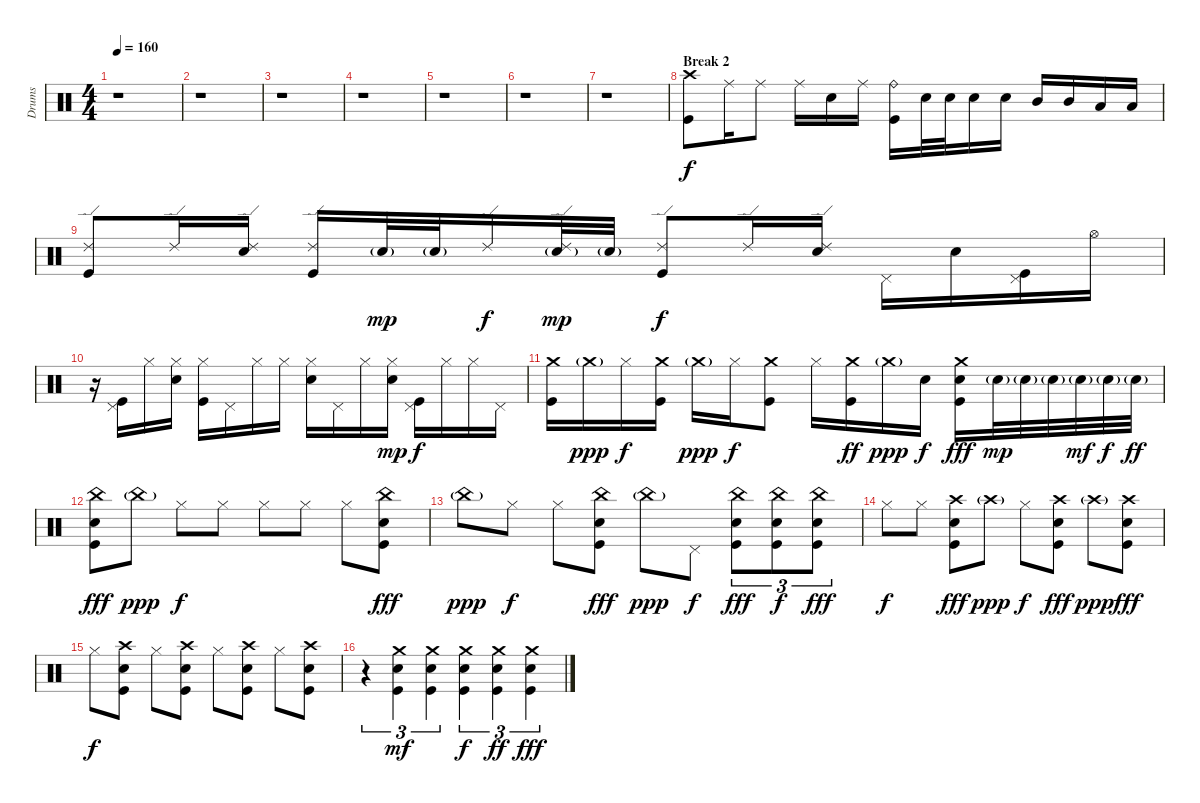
\track ("Drums" "Drums") {instrument percussion}
\staff {score}
\articulation defaults
\ts (4 4)
\tempo 160
\clef neutral
\ks c
r.1{dy f} |
r.1 |
r.1 |
r.1 |
r.1 |
r.1 |
r.1 |
\section ("" "Break 2")
("Crash high (hit)" "Kick (hit)").8{volume 14} "Ride (middle)".16 "Ride (middle)".8 "Ride (middle)".16 "Electric Snare (hit)".16 "Ride (middle)".16 ("Ride (bell)" "Kick (hit)").16 "Electric Snare (hit)".32 "Electric Snare (hit)".32 "Electric Snare (hit)".16 "Electric Snare (hit)".16 "Mid Tom (hit)".16 "Mid Tom (hit)".16 "Low Tom (hit)".16 "Low Tom (hit)".16 |
("Ride (edge) 2" "Kick (hit)").8 "Ride (edge) 2".16 ("Ride (edge) 2" "Electric Snare (hit)").16 ("Ride (edge) 2" "Kick (hit)").16 "Electric Snare (hit)"{g}.32{dy mp} "Electric Snare (hit)"{g}.32 "Ride (edge) 2".16{dy f} ("Ride (edge) 2" "Electric Snare (hit)"{g}).32{dy mp} "Electric Snare (hit)"{g}.32 ("Ride (edge) 2" "Kick (hit)").8{dy f} "Ride (edge) 2".16 ("Ride (edge) 2" "Electric Snare (hit)").16 "Pedal Hi-Hat (hit)".16 "Electric Snare (hit)".16 ("Pedal Hi-Hat (hit)" "Kick (hit)").16 "Hi-Hat (open)".16 |
r.16 ("Pedal Hi-Hat (hit)" "Kick (hit)").16 "Hi-Hat (closed)".16 ("Hi-Hat (closed)" "Electric Snare (hit)").16 ("Hi-Hat (closed)" "Kick (hit)").16 "Pedal Hi-Hat (hit)".16 "Hi-Hat (closed)".16 "Hi-Hat (closed)".16 ("Hi-Hat (closed)" "Electric Snare (hit)").16 "Pedal Hi-Hat (hit)".16 "Hi-Hat (closed)".16 ("Hi-Hat (closed)" "Electric Snare (hit)").16{dy mp} ("Pedal Hi-Hat (hit)" "Kick (hit)").16{dy f} "Hi-Hat (closed)".16 "Hi-Hat (closed)".16 "Pedal Hi-Hat (hit)".16 |
("Crash medium (hit)" "Kick (hit)").16 "Crash medium (hit)"{g}.16{dy ppp} "Hi-Hat (closed)".16{dy f} ("Crash medium (hit)" "Kick (hit)").16 "Crash medium (hit)"{g}.16{dy ppp} "Hi-Hat (closed)".16{dy f} ("Crash medium (hit)" "Kick (hit)").8 "Hi-Hat (closed)".16 ("Crash medium (hit)" "Kick (hit)").16{dy ff} "Crash medium (hit)"{g}.16{dy ppp} "Electric Snare (hit)".16{dy f} ("Crash medium (hit)" "Electric Snare (hit)" "Kick (hit)").16{dy fff} "Electric Snare (hit)"{g}.32{dy mp} "Electric Snare (hit)"{g}.32 "Electric Snare (hit)"{g}.32 "Electric Snare (hit)"{g}.32{dy mf} "Electric Snare (hit)"{g}.32{dy f} "Electric Snare (hit)"{g}.32{dy ff} |
("China (hit)" "Electric Snare (hit)" "Kick (hit)").8{dy fff} "China (hit)"{g}.8{dy ppp} "Hi-Hat (closed)".8{dy f} "Hi-Hat (closed)".8 "Hi-Hat (closed)".8 "Hi-Hat (closed)".8 "Hi-Hat (closed)".8 ("China (hit)" "Electric Snare (hit)" "Kick (hit)").8{dy fff} |
"China (hit)"{g}.8{dy ppp} "Hi-Hat (closed)".8{dy f} "Hi-Hat (closed)".8 ("China (hit)" "Electric Snare (hit)" "Kick (hit)").8{dy fff} "China (hit)"{g}.8{dy ppp} "Pedal Hi-Hat (hit)".8{dy f} ("China (hit)" "Electric Snare (hit)" "Kick (hit)").8{tu (3 2) dy fff} ("China (hit)" "Electric Snare (hit)" "Kick (hit)").8{tu (3 2) dy f} ("China (hit)" "Electric Snare (hit)" "Kick (hit)").8{tu (3 2) dy fff} |
"Hi-Hat (closed)".8{dy f} "Hi-Hat (closed)".8 ("Crash high (hit)" "Electric Snare (hit)" "Kick (hit)").8{dy fff} "Crash high (hit)"{g}.8{dy ppp} "Hi-Hat (closed)".8{dy f} ("Crash high (hit)" "Electric Snare (hit)" "Kick (hit)").8{dy fff} "Crash high (hit)"{g}.8{dy ppp} ("Crash high (hit)" "Electric Snare (hit)" "Kick (hit)").8{dy fff} |
"Hi-Hat (closed)".8{dy f} ("Crash high (hit)" "Electric Snare (hit)" "Kick (hit)").8 "Hi-Hat (closed)".8 ("Crash high (hit)" "Electric Snare (hit)" "Kick (hit)").8 "Hi-Hat (closed)".8 ("Crash high (hit)" "Electric Snare (hit)" "Kick (hit)").8 "Hi-Hat (closed)".8 ("Crash high (hit)" "Electric Snare (hit)" "Kick (hit)").8 |
r.4{tu (3 2)} ("Crash medium (hit)" "Electric Snare (hit)" "Kick (hit)").4{tu (3 2) dy mf} ("Crash medium (hit)" "Electric Snare (hit)" "Kick (hit)").4{tu (3 2)} ("Crash medium (hit)" "Electric Snare (hit)" "Kick (hit)").4{tu (3 2) dy f} ("Crash medium (hit)" "Electric Snare (hit)" "Kick (hit)").4{tu (3 2) dy ff} ("Crash medium (hit)" "Electric Snare (hit)" "Kick (hit)").4{tu (3 2) dy fff}
